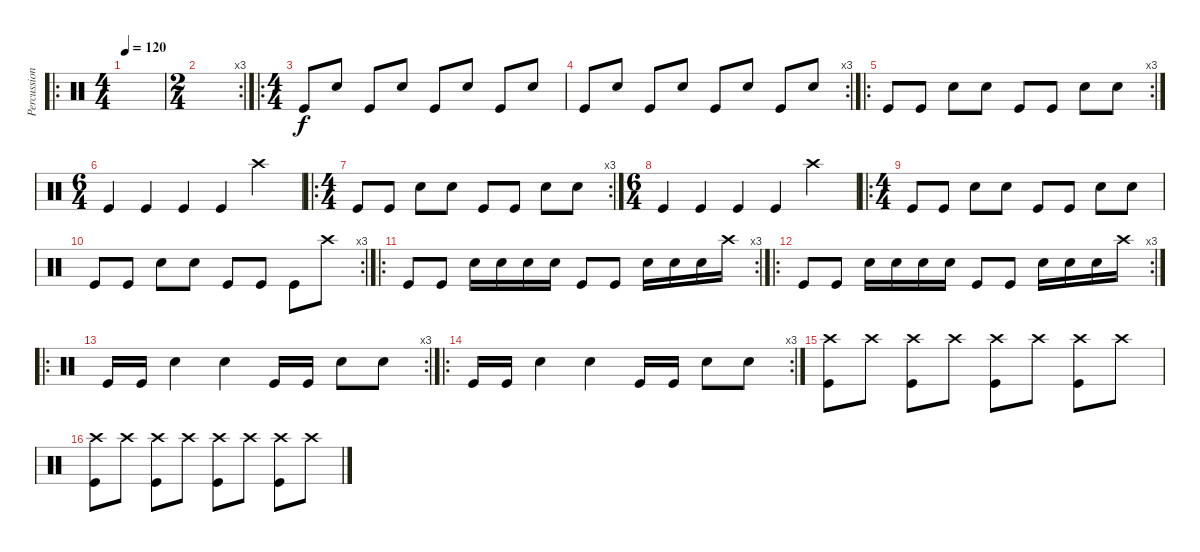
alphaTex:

\track ("Percussion" "Percussion") {instrument percussion}
\staff {score}
\articulation defaults
\ro
\ts (4 4)
\tempo 120
\clef neutral
\ks c
|
\rc 3
\ts (2 4)
|
\ro
\ts (4 4)
"Kick (hit)".8 "Snare (hit) 2".8 "Kick (hit)".8 "Snare (hit) 2".8 "Kick (hit)".8 "Snare (hit) 2".8 "Kick (hit)".8 "Snare (hit) 2".8 |
\rc 3 "Kick (hit)".8 "Snare (hit) 2".8 "Kick (hit)".8 "Snare (hit) 2".8 "Kick (hit)".8 "Snare (hit) 2".8 "Kick (hit)".8 "Snare (hit) 2".8
|
\ro
\rc 3 "Kick (hit)".8 "Kick (hit)".8 "Snare (hit) 2".8 "Snare (hit) 2".8 "Kick (hit)".8 "Kick (hit)".8 "Snare (hit) 2".8 "Snare (hit) 2".8
|
\ts (6 4)
"Kick (hit)".4 "Kick (hit)".4 "Kick (hit)".4 "Kick (hit)".4 "Crash high (hit)".2 |
\ro
\rc 3
\ts (4 4)
"Kick (hit)".8 "Kick (hit)".8 "Snare (hit) 2".8 "Snare (hit) 2".8 "Kick (hit)".8 "Kick (hit)".8 "Snare (hit) 2".8 "Snare (hit) 2".8 |
\ts (6 4)
"Kick (hit)".4 "Kick (hit)".4 "Kick (hit)".4 "Kick (hit)".4 "Crash high (hit)".2 |
\ro
\ts (4 4)
"Kick (hit)".8 "Kick (hit)".8 "Snare (hit) 2".8 "Snare (hit) 2".8 "Kick (hit)".8 "Kick (hit)".8 "Snare (hit) 2".8 "Snare (hit) 2".8 |
\rc 3 "Kick (hit)".8 "Kick (hit)".8 "Snare (hit) 2".8 "Snare (hit) 2".8 "Kick (hit)".8 "Kick (hit)".8 "Kick (hit)".8 "Crash high (hit)".8
|
\ro
\rc 3 "Kick (hit)".8 "Kick (hit)".8 "Snare (hit) 2".16 "Snare (hit) 2".16 "Snare (hit) 2".16 "Snare (hit) 2".16 "Kick (hit)".8 "Kick (hit)".8 "Snare (hit) 2".16 "Snare (hit) 2".16 "Snare (hit) 2".16 "Crash high (hit)".16
|
\ro
\rc 3 "Kick (hit)".8 "Kick (hit)".8 "Snare (hit) 2".16 "Snare (hit) 2".16 "Snare (hit) 2".16 "Snare (hit) 2".16 "Kick (hit)".8 "Kick (hit)".8 "Snare (hit) 2".16 "Snare (hit) 2".16 "Snare (hit) 2".16 "Crash high (hit)".16
|
\ro
\rc 3 "Kick (hit)".16 "Kick (hit)".16 "Snare (hit) 2".4 "Snare (hit) 2".4 "Kick (hit)".16 "Kick (hit)".16 "Snare (hit) 2".8 "Snare (hit) 2".8
|
\ro
\rc 3 "Kick (hit)".16 "Kick (hit)".16 "Snare (hit) 2".4 "Snare (hit) 2".4 "Kick (hit)".16 "Kick (hit)".16 "Snare (hit) 2".8 "Snare (hit) 2".8
|
("Kick (hit)" "Crash high (hit)").8 "Crash high (hit)".8 ("Kick (hit)" "Crash high (hit)").8 "Crash high (hit)".8 ("Kick (hit)" "Crash high (hit)").8 "Crash high (hit)".8 ("Kick (hit)" "Crash high (hit)").8 "Crash high (hit)".8 |
("Kick (hit)" "Crash high (hit)").8 "Crash high (hit)".8 ("Kick (hit)" "Crash high (hit)").8 "Crash high (hit)".8 ("Kick (hit)" "Crash high (hit)").8 "Crash high (hit)".8 ("Kick (hit)" "Crash high (hit)").8 "Crash high (hit)".8
